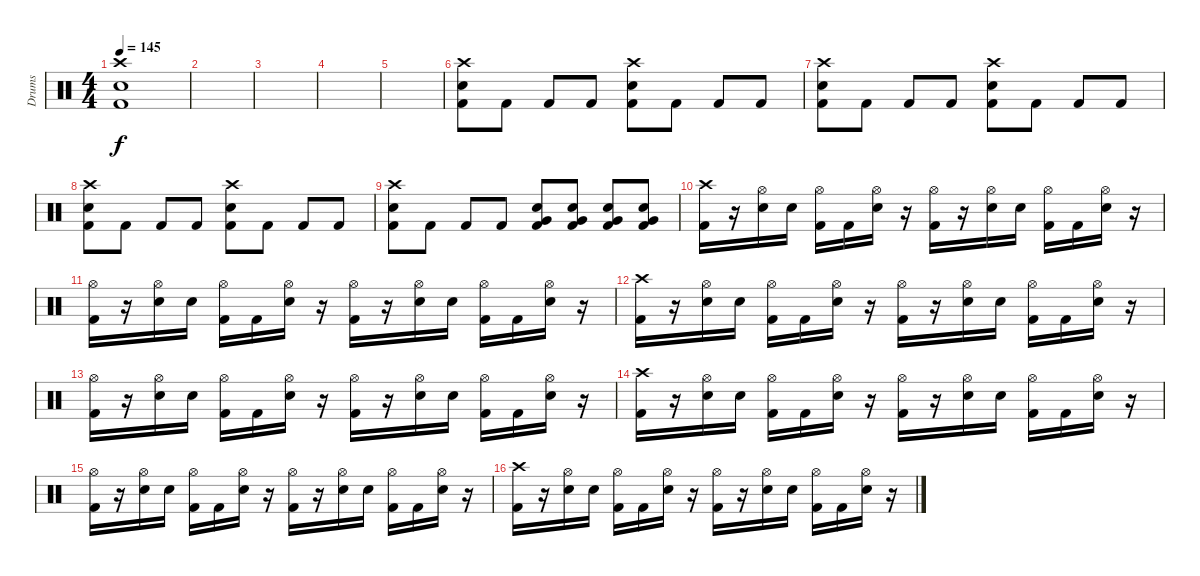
\track ("Drums" "Drums") {instrument percussion}
\staff {score}
\articulation defaults
\ts (4 4)
\tempo 145
\clef neutral
\ks c
("Crash high (hit)" "Electric Snare (hit)" "Kick (hit) 2").1{dy f} |
|
|
|
|
("Crash high (hit)" "Electric Snare (hit)" "Kick (hit) 2").8 "Kick (hit) 2".8 "Kick (hit) 2".8 "Kick (hit) 2".8 ("Crash high (hit)" "Electric Snare (hit)" "Kick (hit) 2").8 "Kick (hit) 2".8 "Kick (hit) 2".8 "Kick (hit) 2".8 |
("Crash high (hit)" "Electric Snare (hit)" "Kick (hit) 2").8 "Kick (hit) 2".8 "Kick (hit) 2".8 "Kick (hit) 2".8 ("Crash high (hit)" "Electric Snare (hit)" "Kick (hit) 2").8 "Kick (hit) 2".8 "Kick (hit) 2".8 "Kick (hit) 2".8 |
("Crash high (hit)" "Electric Snare (hit)" "Kick (hit) 2").8 "Kick (hit) 2".8 "Kick (hit) 2".8 "Kick (hit) 2".8 ("Crash high (hit)" "Electric Snare (hit)" "Kick (hit) 2").8 "Kick (hit) 2".8 "Kick (hit) 2".8 "Kick (hit) 2".8 |
("Crash high (hit)" "Electric Snare (hit)" "Kick (hit) 2").8 "Kick (hit) 2".8 "Kick (hit) 2".8 "Kick (hit) 2".8 ("Very Low Tom (hit)" "Electric Snare (hit)" "Kick (hit) 2").8 ("Very Low Tom (hit)" "Electric Snare (hit)" "Kick (hit) 2").8 ("Very Low Tom (hit)" "Electric Snare (hit)" "Kick (hit) 2").8 ("Very Low Tom (hit)" "Electric Snare (hit)" "Kick (hit) 2").8 |
("Crash high (hit)" "Kick (hit) 2").16 r.16 ("Hi-Hat (open)" "Electric Snare (hit)").16 "Electric Snare (hit)".16 ("Hi-Hat (open)" "Kick (hit) 2").16 "Kick (hit) 2".16 ("Hi-Hat (open)" "Electric Snare (hit)").16 r.16 ("Hi-Hat (open)" "Kick (hit) 2").16 r.16 ("Hi-Hat (open)" "Electric Snare (hit)").16 "Electric Snare (hit)".16 ("Hi-Hat (open)" "Kick (hit) 2").16 "Kick (hit) 2".16 ("Hi-Hat (open)" "Electric Snare (hit)").16 r.16 |
("Hi-Hat (open)" "Kick (hit) 2").16 r.16 ("Hi-Hat (open)" "Electric Snare (hit)").16 "Electric Snare (hit)".16 ("Hi-Hat (open)" "Kick (hit) 2").16 "Kick (hit) 2".16 ("Hi-Hat (open)" "Electric Snare (hit)").16 r.16 ("Hi-Hat (open)" "Kick (hit) 2").16 r.16 ("Hi-Hat (open)" "Electric Snare (hit)").16 "Electric Snare (hit)".16 ("Hi-Hat (open)" "Kick (hit) 2").16 "Kick (hit) 2".16 ("Hi-Hat (open)" "Electric Snare (hit)").16 r.16 |
("Crash high (hit)" "Kick (hit) 2").16 r.16 ("Hi-Hat (open)" "Electric Snare (hit)").16 "Electric Snare (hit)".16 ("Hi-Hat (open)" "Kick (hit) 2").16 "Kick (hit) 2".16 ("Hi-Hat (open)" "Electric Snare (hit)").16 r.16 ("Hi-Hat (open)" "Kick (hit) 2").16 r.16 ("Hi-Hat (open)" "Electric Snare (hit)").16 "Electric Snare (hit)".16 ("Hi-Hat (open)" "Kick (hit) 2").16 "Kick (hit) 2".16 ("Hi-Hat (open)" "Electric Snare (hit)").16 r.16 |
("Hi-Hat (open)" "Kick (hit) 2").16 r.16 ("Hi-Hat (open)" "Electric Snare (hit)").16 "Electric Snare (hit)".16 ("Hi-Hat (open)" "Kick (hit) 2").16 "Kick (hit) 2".16 ("Hi-Hat (open)" "Electric Snare (hit)").16 r.16 ("Hi-Hat (open)" "Kick (hit) 2").16 r.16 ("Hi-Hat (open)" "Electric Snare (hit)").16 "Electric Snare (hit)".16 ("Hi-Hat (open)" "Kick (hit) 2").16 "Kick (hit) 2".16 ("Hi-Hat (open)" "Electric Snare (hit)").16 r.16 |
("Crash high (hit)" "Kick (hit) 2").16 r.16 ("Hi-Hat (open)" "Electric Snare (hit)").16 "Electric Snare (hit)".16 ("Hi-Hat (open)" "Kick (hit) 2").16 "Kick (hit) 2".16 ("Hi-Hat (open)" "Electric Snare (hit)").16 r.16 ("Hi-Hat (open)" "Kick (hit) 2").16 r.16 ("Hi-Hat (open)" "Electric Snare (hit)").16 "Electric Snare (hit)".16 ("Hi-Hat (open)" "Kick (hit) 2").16 "Kick (hit) 2".16 ("Hi-Hat (open)" "Electric Snare (hit)").16 r.16 |
("Hi-Hat (open)" "Kick (hit) 2").16 r.16 ("Hi-Hat (open)" "Electric Snare (hit)").16 "Electric Snare (hit)".16 ("Hi-Hat (open)" "Kick (hit) 2").16 "Kick (hit) 2".16 ("Hi-Hat (open)" "Electric Snare (hit)").16 r.16 ("Hi-Hat (open)" "Kick (hit) 2").16 r.16 ("Hi-Hat (open)" "Electric Snare (hit)").16 "Electric Snare (hit)".16 ("Hi-Hat (open)" "Kick (hit) 2").16 "Kick (hit) 2".16 ("Hi-Hat (open)" "Electric Snare (hit)").16 r.16 |
("Crash high (hit)" "Kick (hit) 2").16 r.16 ("Hi-Hat (open)" "Electric Snare (hit)").16 "Electric Snare (hit)".16 ("Hi-Hat (open)" "Kick (hit) 2").16 "Kick (hit) 2".16 ("Hi-Hat (open)" "Electric Snare (hit)").16 r.16 ("Hi-Hat (open)" "Kick (hit) 2").16 r.16 ("Hi-Hat (open)" "Electric Snare (hit)").16 "Electric Snare (hit)".16 ("Hi-Hat (open)" "Kick (hit) 2").16 "Kick (hit) 2".16 ("Hi-Hat (open)" "Electric Snare (hit)").16 r.16
